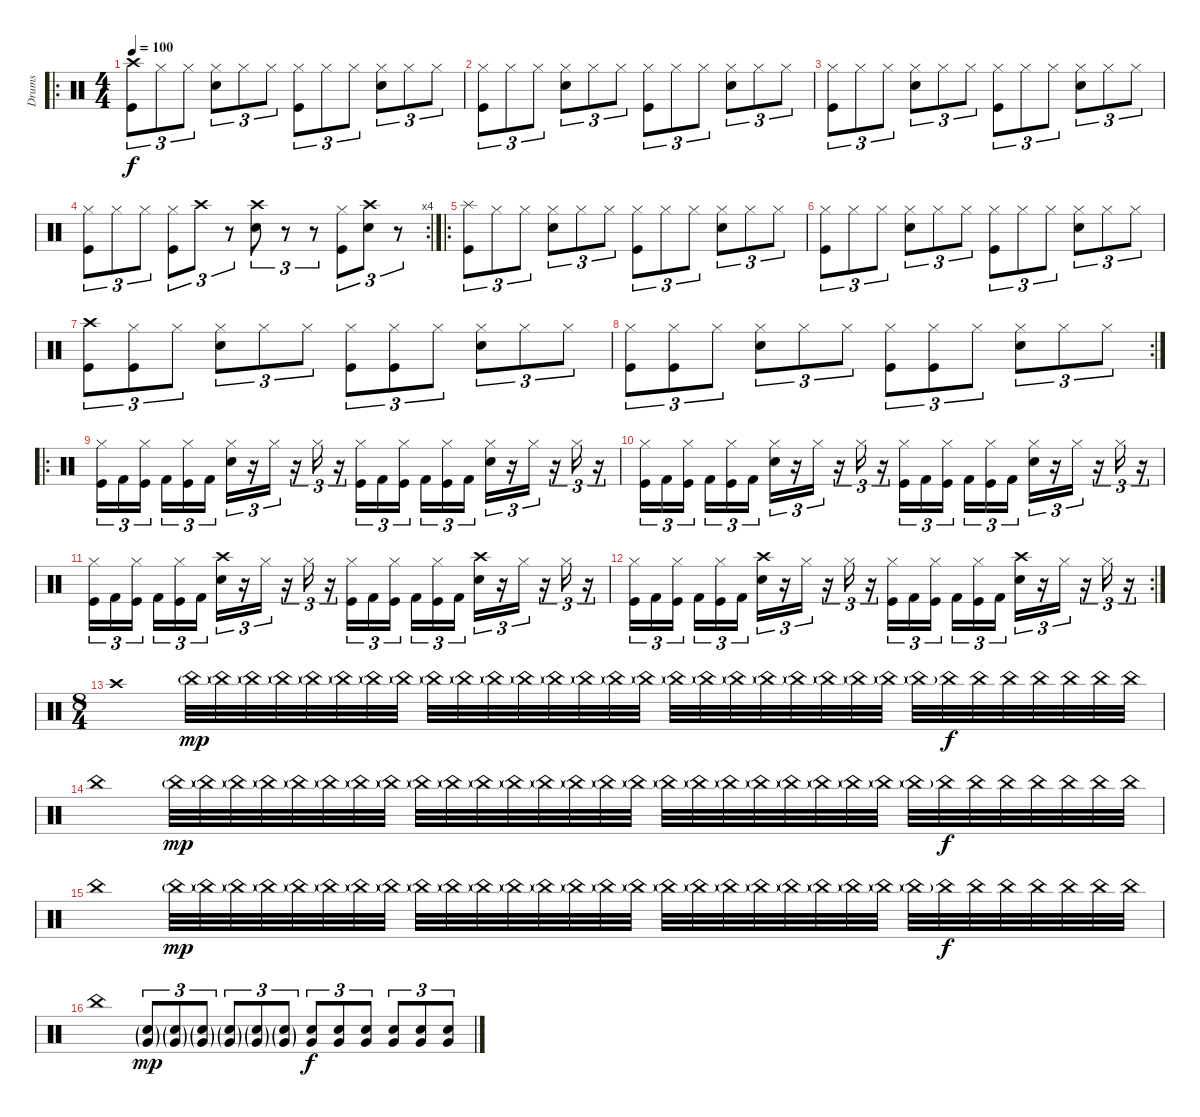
\track ("Drums" "Drums") {instrument percussion}
\staff {score}
\articulation defaults
\ro
\ts (4 4)
\tempo 100
\clef neutral
\ks c
("Crash high (hit)" "Kick (hit)").8{tu (3 2) dy f} "Hi-Hat (closed)".8{tu (3 2)} "Hi-Hat (closed)".8{tu (3 2)} ("Hi-Hat (closed)" "Snare (hit) 2").8{tu (3 2)} "Hi-Hat (closed)".8{tu (3 2)} "Hi-Hat (closed)".8{tu (3 2)} ("Hi-Hat (closed)" "Kick (hit)").8{tu (3 2)} "Hi-Hat (closed)".8{tu (3 2)} "Hi-Hat (closed)".8{tu (3 2)} ("Hi-Hat (closed)" "Snare (hit) 2").8{tu (3 2)} "Hi-Hat (closed)".8{tu (3 2)} "Hi-Hat (closed)".8{tu (3 2)} |
("Hi-Hat (closed)" "Kick (hit)").8{tu (3 2)} "Hi-Hat (closed)".8{tu (3 2)} "Hi-Hat (closed)".8{tu (3 2)} ("Hi-Hat (closed)" "Snare (hit) 2").8{tu (3 2)} "Hi-Hat (closed)".8{tu (3 2)} "Hi-Hat (closed)".8{tu (3 2)} ("Hi-Hat (closed)" "Kick (hit)").8{tu (3 2)} "Hi-Hat (closed)".8{tu (3 2)} "Hi-Hat (closed)".8{tu (3 2)} ("Hi-Hat (closed)" "Snare (hit) 2").8{tu (3 2)} "Hi-Hat (closed)".8{tu (3 2)} "Hi-Hat (closed)".8{tu (3 2)} |
("Hi-Hat (closed)" "Kick (hit)").8{tu (3 2)} "Hi-Hat (closed)".8{tu (3 2)} "Hi-Hat (closed)".8{tu (3 2)} ("Hi-Hat (closed)" "Snare (hit) 2").8{tu (3 2)} "Hi-Hat (closed)".8{tu (3 2)} "Hi-Hat (closed)".8{tu (3 2)} ("Hi-Hat (closed)" "Kick (hit)").8{tu (3 2)} "Hi-Hat (closed)".8{tu (3 2)} "Hi-Hat (closed)".8{tu (3 2)} ("Hi-Hat (closed)" "Snare (hit) 2").8{tu (3 2)} "Hi-Hat (closed)".8{tu (3 2)} "Hi-Hat (closed)".8{tu (3 2)} |
\rc 4
("Hi-Hat (closed)" "Kick (hit)").8{tu (3 2)} "Hi-Hat (closed)".8{tu (3 2)} "Hi-Hat (closed)".8{tu (3 2)} ("Hi-Hat (closed)" "Kick (hit)").8{tu (3 2)} "Crash high (hit)".8{tu (3 2)} r.8{tu (3 2)} ("Crash high (hit)" "Snare (hit) 2").8{tu (3 2)} r.8{tu (3 2)} r.8{tu (3 2)} ("Hi-Hat (closed)" "Kick (hit)").8{tu (3 2)} ("Crash high (hit)" "Snare (hit) 2").8{tu (3 2)} r.8{tu (3 2)} |
\ro
("Splash (hit)" "Kick (hit)").8{tu (3 2)} "Hi-Hat (closed)".8{tu (3 2)} "Hi-Hat (closed)".8{tu (3 2)} ("Hi-Hat (closed)" "Snare (hit) 2").8{tu (3 2)} "Hi-Hat (closed)".8{tu (3 2)} "Hi-Hat (closed)".8{tu (3 2)} ("Hi-Hat (closed)" "Kick (hit)").8{tu (3 2)} "Hi-Hat (closed)".8{tu (3 2)} "Hi-Hat (closed)".8{tu (3 2)} ("Hi-Hat (closed)" "Snare (hit) 2").8{tu (3 2)} "Hi-Hat (closed)".8{tu (3 2)} "Hi-Hat (closed)".8{tu (3 2)} |
("Hi-Hat (closed)" "Kick (hit)").8{tu (3 2)} "Hi-Hat (closed)".8{tu (3 2)} "Hi-Hat (closed)".8{tu (3 2)} ("Hi-Hat (closed)" "Snare (hit) 2").8{tu (3 2)} "Hi-Hat (closed)".8{tu (3 2)} "Hi-Hat (closed)".8{tu (3 2)} ("Hi-Hat (closed)" "Kick (hit)").8{tu (3 2)} "Hi-Hat (closed)".8{tu (3 2)} "Hi-Hat (closed)".8{tu (3 2)} ("Hi-Hat (closed)" "Snare (hit) 2").8{tu (3 2)} "Hi-Hat (closed)".8{tu (3 2)} "Hi-Hat (closed)".8{tu (3 2)} |
("Crash high (hit)" "Kick (hit)").8{tu (3 2)} ("Kick (hit)" "Hi-Hat (closed)").8{tu (3 2)} "Hi-Hat (closed)".8{tu (3 2)} ("Hi-Hat (closed)" "Snare (hit) 2").8{tu (3 2)} "Hi-Hat (closed)".8{tu (3 2)} "Hi-Hat (closed)".8{tu (3 2)} ("Hi-Hat (closed)" "Kick (hit)").8{tu (3 2)} ("Kick (hit)" "Hi-Hat (closed)").8{tu (3 2)} "Hi-Hat (closed)".8{tu (3 2)} ("Hi-Hat (closed)" "Snare (hit) 2").8{tu (3 2)} "Hi-Hat (closed)".8{tu (3 2)} "Hi-Hat (closed)".8{tu (3 2)} |
\rc 2
("Hi-Hat (closed)" "Kick (hit)").8{tu (3 2)} ("Kick (hit)" "Hi-Hat (closed)").8{tu (3 2)} "Hi-Hat (closed)".8{tu (3 2)} ("Hi-Hat (closed)" "Snare (hit) 2").8{tu (3 2)} "Hi-Hat (closed)".8{tu (3 2)} "Hi-Hat (closed)".8{tu (3 2)} ("Hi-Hat (closed)" "Kick (hit)").8{tu (3 2)} ("Kick (hit)" "Hi-Hat (closed)").8{tu (3 2)} "Hi-Hat (closed)".8{tu (3 2)} ("Hi-Hat (closed)" "Snare (hit) 2").8{tu (3 2)} "Hi-Hat (closed)".8{tu (3 2)} "Hi-Hat (closed)".8{tu (3 2)} |
\ro
("Hi-Hat (closed)" "Kick (hit)").16{tu (3 2)} "Kick (hit) 2".16{tu (3 2)} ("Hi-Hat (closed)" "Kick (hit)").16{tu (3 2)} "Kick (hit) 2".16{tu (3 2)} ("Hi-Hat (closed)" "Kick (hit)").16{tu (3 2)} "Kick (hit) 2".16{tu (3 2)} ("Hi-Hat (closed)" "Snare (hit) 2").16{tu (3 2)} r.16{tu (3 2)} "Hi-Hat (closed)".16{tu (3 2)} r.16{tu (3 2)} "Hi-Hat (closed)".16{tu (3 2)} r.16{tu (3 2)} ("Hi-Hat (closed)" "Kick (hit)").16{tu (3 2)} "Kick (hit) 2".16{tu (3 2)} ("Hi-Hat (closed)" "Kick (hit)").16{tu (3 2)} "Kick (hit) 2".16{tu (3 2)} ("Hi-Hat (closed)" "Kick (hit)").16{tu (3 2)} "Kick (hit) 2".16{tu (3 2)} ("Hi-Hat (closed)" "Snare (hit) 2").16{tu (3 2)} r.16{tu (3 2)} "Hi-Hat (closed)".16{tu (3 2)} r.16{tu (3 2)} "Hi-Hat (closed)".16{tu (3 2)} r.16{tu (3 2)} |
("Hi-Hat (closed)" "Kick (hit)").16{tu (3 2)} "Kick (hit) 2".16{tu (3 2)} ("Hi-Hat (closed)" "Kick (hit)").16{tu (3 2)} "Kick (hit) 2".16{tu (3 2)} ("Hi-Hat (closed)" "Kick (hit)").16{tu (3 2)} "Kick (hit) 2".16{tu (3 2)} ("Hi-Hat (closed)" "Snare (hit) 2").16{tu (3 2)} r.16{tu (3 2)} "Hi-Hat (closed)".16{tu (3 2)} r.16{tu (3 2)} "Hi-Hat (closed)".16{tu (3 2)} r.16{tu (3 2)} ("Hi-Hat (closed)" "Kick (hit)").16{tu (3 2)} "Kick (hit) 2".16{tu (3 2)} ("Hi-Hat (closed)" "Kick (hit)").16{tu (3 2)} "Kick (hit) 2".16{tu (3 2)} ("Hi-Hat (closed)" "Kick (hit)").16{tu (3 2)} "Kick (hit) 2".16{tu (3 2)} ("Hi-Hat (closed)" "Snare (hit) 2").16{tu (3 2)} r.16{tu (3 2)} "Hi-Hat (closed)".16{tu (3 2)} r.16{tu (3 2)} "Hi-Hat (closed)".16{tu (3 2)} r.16{tu (3 2)} |
("Hi-Hat (closed)" "Kick (hit)").16{tu (3 2)} "Kick (hit) 2".16{tu (3 2)} ("Hi-Hat (closed)" "Kick (hit)").16{tu (3 2)} "Kick (hit) 2".16{tu (3 2)} ("Hi-Hat (closed)" "Kick (hit)").16{tu (3 2)} "Kick (hit) 2".16{tu (3 2)} ("Crash high (hit)" "Snare (hit) 2").16{tu (3 2)} r.16{tu (3 2)} "Hi-Hat (closed)".16{tu (3 2)} r.16{tu (3 2)} "Hi-Hat (closed)".16{tu (3 2)} r.16{tu (3 2)} ("Hi-Hat (closed)" "Kick (hit)").16{tu (3 2)} "Kick (hit) 2".16{tu (3 2)} ("Hi-Hat (closed)" "Kick (hit)").16{tu (3 2)} "Kick (hit) 2".16{tu (3 2)} ("Hi-Hat (closed)" "Kick (hit)").16{tu (3 2)} "Kick (hit) 2".16{tu (3 2)} ("Crash high (hit)" "Snare (hit) 2").16{tu (3 2)} r.16{tu (3 2)} "Hi-Hat (closed)".16{tu (3 2)} r.16{tu (3 2)} "Hi-Hat (closed)".16{tu (3 2)} r.16{tu (3 2)} |
\rc 2
("Hi-Hat (closed)" "Kick (hit)").16{tu (3 2)} "Kick (hit) 2".16{tu (3 2)} ("Hi-Hat (closed)" "Kick (hit)").16{tu (3 2)} "Kick (hit) 2".16{tu (3 2)} ("Hi-Hat (closed)" "Kick (hit)").16{tu (3 2)} "Kick (hit) 2".16{tu (3 2)} ("Crash high (hit)" "Snare (hit) 2").16{tu (3 2)} r.16{tu (3 2)} "Hi-Hat (closed)".16{tu (3 2)} r.16{tu (3 2)} "Hi-Hat (closed)".16{tu (3 2)} r.16{tu (3 2)} ("Hi-Hat (closed)" "Kick (hit)").16{tu (3 2)} "Kick (hit) 2".16{tu (3 2)} ("Hi-Hat (closed)" "Kick (hit)").16{tu (3 2)} "Kick (hit) 2".16{tu (3 2)} ("Hi-Hat (closed)" "Kick (hit)").16{tu (3 2)} "Kick (hit) 2".16{tu (3 2)} ("Crash high (hit)" "Snare (hit) 2").16{tu (3 2)} r.16{tu (3 2)} "Hi-Hat (closed)".16{tu (3 2)} r.16{tu (3 2)} "Hi-Hat (closed)".16{tu (3 2)} r.16{tu (3 2)} |
\ts (8 4)
"Crash high (hit)".1 "China (hit)"{g}.32{dy mp} "China (hit)"{g}.32 "China (hit)"{g}.32 "China (hit)"{g}.32 "China (hit)"{g}.32 "China (hit)"{g}.32 "China (hit)"{g}.32 "China (hit)"{g}.32 "China (hit)"{g}.32 "China (hit)"{g}.32 "China (hit)"{g}.32 "China (hit)"{g}.32 "China (hit)"{g}.32 "China (hit)"{g}.32 "China (hit)"{g}.32 "China (hit)"{g}.32 "China (hit)"{g}.32 "China (hit)"{g}.32 "China (hit)"{g}.32 "China (hit)"{g}.32 "China (hit)"{g}.32 "China (hit)"{g}.32 "China (hit)"{g}.32 "China (hit)"{g}.32 "China (hit)"{g}.32 "China (hit)".32{dy f} "China (hit)".32 "China (hit)".32 "China (hit)".32 "China (hit)".32 "China (hit)".32 "China (hit)".32 |
"China (hit)".1 "China (hit)"{g}.32{dy mp} "China (hit)"{g}.32 "China (hit)"{g}.32 "China (hit)"{g}.32 "China (hit)"{g}.32 "China (hit)"{g}.32 "China (hit)"{g}.32 "China (hit)"{g}.32 "China (hit)"{g}.32 "China (hit)"{g}.32 "China (hit)"{g}.32 "China (hit)"{g}.32 "China (hit)"{g}.32 "China (hit)"{g}.32 "China (hit)"{g}.32 "China (hit)"{g}.32 "China (hit)"{g}.32 "China (hit)"{g}.32 "China (hit)"{g}.32 "China (hit)"{g}.32 "China (hit)"{g}.32 "China (hit)"{g}.32 "China (hit)"{g}.32 "China (hit)"{g}.32 "China (hit)"{g}.32 "China (hit)".32{dy f} "China (hit)".32 "China (hit)".32 "China (hit)".32 "China (hit)".32 "China (hit)".32 "China (hit)".32 |
"China (hit)".1 "China (hit)"{g}.32{dy mp} "China (hit)"{g}.32 "China (hit)"{g}.32 "China (hit)"{g}.32 "China (hit)"{g}.32 "China (hit)"{g}.32 "China (hit)"{g}.32 "China (hit)"{g}.32 "China (hit)"{g}.32 "China (hit)"{g}.32 "China (hit)"{g}.32 "China (hit)"{g}.32 "China (hit)"{g}.32 "China (hit)"{g}.32 "China (hit)"{g}.32 "China (hit)"{g}.32 "China (hit)"{g}.32 "China (hit)"{g}.32 "China (hit)"{g}.32 "China (hit)"{g}.32 "China (hit)"{g}.32 "China (hit)"{g}.32 "China (hit)"{g}.32 "China (hit)"{g}.32 "China (hit)"{g}.32 "China (hit)".32{dy f} "China (hit)".32 "China (hit)".32 "China (hit)".32 "China (hit)".32 "China (hit)".32 "China (hit)".32 |
"China (hit)".1 ("Very Low Tom (hit)"{g} "Snare (hit) 2"{g}).8{tu (3 2) dy mp} ("Very Low Tom (hit)"{g} "Snare (hit) 2"{g}).8{tu (3 2)} ("Very Low Tom (hit)"{g} "Snare (hit) 2"{g}).8{tu (3 2)} ("Very Low Tom (hit)"{g} "Snare (hit) 2"{g}).8{tu (3 2)} ("Very Low Tom (hit)"{g} "Snare (hit) 2"{g}).8{tu (3 2)} ("Very Low Tom (hit)"{g} "Snare (hit) 2"{g}).8{tu (3 2)} ("Very Low Tom (hit)" "Snare (hit) 2").8{tu (3 2) dy f} ("Very Low Tom (hit)" "Snare (hit) 2").8{tu (3 2)} ("Very Low Tom (hit)" "Snare (hit) 2").8{tu (3 2)} ("Very Low Tom (hit)" "Snare (hit) 2").8{tu (3 2)} ("Very Low Tom (hit)" "Snare (hit) 2").8{tu (3 2)} ("Very Low Tom (hit)" "Snare (hit) 2").8{tu (3 2)}
